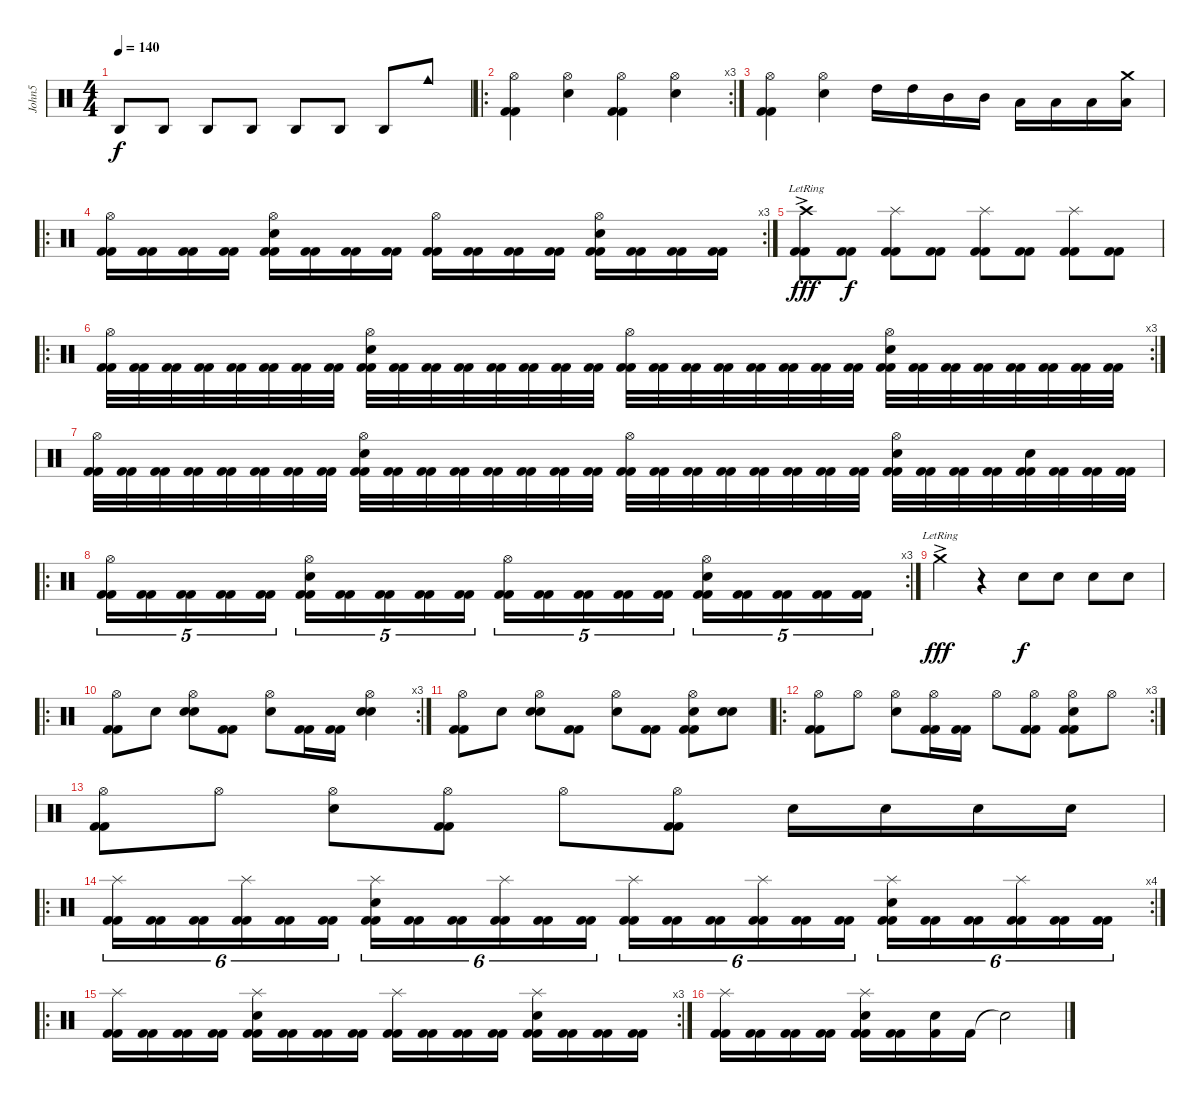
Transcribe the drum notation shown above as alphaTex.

\track ("John5" "John5") {instrument percussion}
\staff {score}
\articulation defaults
\ts (4 4)
\tempo 140
\clef neutral
\ks c "Agogo high (hit)".8{dy f} "Agogo high (hit)".8 "Agogo high (hit)".8 "Agogo high (hit)".8 "Agogo high (hit)".8 "Agogo high (hit)".8 "Agogo high (hit)".8 "Cowbell medium (hit)".8
|
\ro
\rc 3
("Hi-Hat (open)" "Kick (hit) 2" "Kick (hit) 2").4 ("Hi-Hat (open)" "Electric Snare (hit)").4 ("Hi-Hat (open)" "Kick (hit) 2" "Kick (hit) 2").4 ("Hi-Hat (open)" "Electric Snare (hit)").4 |
("Hi-Hat (open)" "Kick (hit) 2" "Kick (hit) 2").4 ("Hi-Hat (open)" "Electric Snare (hit)").4 "High Tom (hit)".16 "High Tom (hit)".16 "Mid Tom (hit)".16 "Mid Tom (hit)".16 "Low Tom (hit)".16 "Low Tom (hit)".16 "Low Tom (hit)".16 ("Crash medium (hit)" "Low Tom (hit)").16 |
\ro
\rc 3
("Hi-Hat (open)" "Kick (hit) 2" "Kick (hit) 2").16 ("Kick (hit) 2" "Kick (hit) 2").16 ("Kick (hit) 2" "Kick (hit) 2").16 ("Kick (hit) 2" "Kick (hit) 2").16 ("Hi-Hat (open)" "Electric Snare (hit)" "Kick (hit) 2" "Kick (hit) 2").16 ("Kick (hit) 2" "Kick (hit) 2").16 ("Kick (hit) 2" "Kick (hit) 2").16 ("Kick (hit) 2" "Kick (hit) 2").16 ("Hi-Hat (open)" "Kick (hit) 2" "Kick (hit) 2").16 ("Kick (hit) 2" "Kick (hit) 2").16 ("Kick (hit) 2" "Kick (hit) 2").16 ("Kick (hit) 2" "Kick (hit) 2").16 ("Hi-Hat (open)" "Electric Snare (hit)" "Kick (hit) 2" "Kick (hit) 2").16 ("Kick (hit) 2" "Kick (hit) 2").16 ("Kick (hit) 2" "Kick (hit) 2").16 ("Kick (hit) 2" "Kick (hit) 2").16 |
("Crash high (hit)"{ac lr} "Kick (hit) 2" "Kick (hit) 2").8{dy fff} ("Kick (hit) 2" "Kick (hit) 2").8{dy f} ("Splash (hit)" "Kick (hit) 2" "Kick (hit) 2").8 ("Kick (hit) 2" "Kick (hit) 2").8 ("Splash (hit)" "Kick (hit) 2" "Kick (hit) 2").8 ("Kick (hit) 2" "Kick (hit) 2").8 ("Splash (hit)" "Kick (hit) 2" "Kick (hit) 2").8 ("Kick (hit) 2" "Kick (hit) 2").8 |
\ro
\rc 3
("Hi-Hat (open)" "Kick (hit) 2" "Kick (hit) 2").32 ("Kick (hit) 2" "Kick (hit) 2").32 ("Kick (hit) 2" "Kick (hit) 2").32 ("Kick (hit) 2" "Kick (hit) 2").32 ("Kick (hit) 2" "Kick (hit) 2").32 ("Kick (hit) 2" "Kick (hit) 2").32 ("Kick (hit) 2" "Kick (hit) 2").32 ("Kick (hit) 2" "Kick (hit) 2").32 ("Hi-Hat (open)" "Electric Snare (hit)" "Kick (hit) 2" "Kick (hit) 2").32 ("Kick (hit) 2" "Kick (hit) 2").32 ("Kick (hit) 2" "Kick (hit) 2").32 ("Kick (hit) 2" "Kick (hit) 2").32 ("Kick (hit) 2" "Kick (hit) 2").32 ("Kick (hit) 2" "Kick (hit) 2").32 ("Kick (hit) 2" "Kick (hit) 2").32 ("Kick (hit) 2" "Kick (hit) 2").32 ("Hi-Hat (open)" "Kick (hit) 2" "Kick (hit) 2").32 ("Kick (hit) 2" "Kick (hit) 2").32 ("Kick (hit) 2" "Kick (hit) 2").32 ("Kick (hit) 2" "Kick (hit) 2").32 ("Kick (hit) 2" "Kick (hit) 2").32 ("Kick (hit) 2" "Kick (hit) 2").32 ("Kick (hit) 2" "Kick (hit) 2").32 ("Kick (hit) 2" "Kick (hit) 2").32 ("Hi-Hat (open)" "Electric Snare (hit)" "Kick (hit) 2" "Kick (hit) 2").32 ("Kick (hit) 2" "Kick (hit) 2").32 ("Kick (hit) 2" "Kick (hit) 2").32 ("Kick (hit) 2" "Kick (hit) 2").32 ("Kick (hit) 2" "Kick (hit) 2").32 ("Kick (hit) 2" "Kick (hit) 2").32 ("Kick (hit) 2" "Kick (hit) 2").32 ("Kick (hit) 2" "Kick (hit) 2").32 |
("Hi-Hat (open)" "Kick (hit) 2" "Kick (hit) 2").32 ("Kick (hit) 2" "Kick (hit) 2").32 ("Kick (hit) 2" "Kick (hit) 2").32 ("Kick (hit) 2" "Kick (hit) 2").32 ("Kick (hit) 2" "Kick (hit) 2").32 ("Kick (hit) 2" "Kick (hit) 2").32 ("Kick (hit) 2" "Kick (hit) 2").32 ("Kick (hit) 2" "Kick (hit) 2").32 ("Hi-Hat (open)" "Electric Snare (hit)" "Kick (hit) 2" "Kick (hit) 2").32 ("Kick (hit) 2" "Kick (hit) 2").32 ("Kick (hit) 2" "Kick (hit) 2").32 ("Kick (hit) 2" "Kick (hit) 2").32 ("Kick (hit) 2" "Kick (hit) 2").32 ("Kick (hit) 2" "Kick (hit) 2").32 ("Kick (hit) 2" "Kick (hit) 2").32 ("Kick (hit) 2" "Kick (hit) 2").32 ("Hi-Hat (open)" "Kick (hit) 2" "Kick (hit) 2").32 ("Kick (hit) 2" "Kick (hit) 2").32 ("Kick (hit) 2" "Kick (hit) 2").32 ("Kick (hit) 2" "Kick (hit) 2").32 ("Kick (hit) 2" "Kick (hit) 2").32 ("Kick (hit) 2" "Kick (hit) 2").32 ("Kick (hit) 2" "Kick (hit) 2").32 ("Kick (hit) 2" "Kick (hit) 2").32 ("Hi-Hat (open)" "Electric Snare (hit)" "Kick (hit) 2" "Kick (hit) 2").32 ("Kick (hit) 2" "Kick (hit) 2").32 ("Kick (hit) 2" "Kick (hit) 2").32 ("Kick (hit) 2" "Kick (hit) 2").32 ("Electric Snare (hit)" "Kick (hit) 2" "Kick (hit) 2").32 ("Kick (hit) 2" "Kick (hit) 2").32 ("Kick (hit) 2" "Kick (hit) 2").32 ("Kick (hit) 2" "Kick (hit) 2").32 |
\ro
\rc 3
("Hi-Hat (open)" "Kick (hit) 2" "Kick (hit) 2").16{tu (5 4)} ("Kick (hit) 2" "Kick (hit) 2").16{tu (5 4)} ("Kick (hit) 2" "Kick (hit) 2").16{tu (5 4)} ("Kick (hit) 2" "Kick (hit) 2").16{tu (5 4)} ("Kick (hit) 2" "Kick (hit) 2").16{tu (5 4)} ("Hi-Hat (open)" "Electric Snare (hit)" "Kick (hit) 2" "Kick (hit) 2").16{tu (5 4)} ("Kick (hit) 2" "Kick (hit) 2").16{tu (5 4)} ("Kick (hit) 2" "Kick (hit) 2").16{tu (5 4)} ("Kick (hit) 2" "Kick (hit) 2").16{tu (5 4)} ("Kick (hit) 2" "Kick (hit) 2").16{tu (5 4)} ("Hi-Hat (open)" "Kick (hit) 2" "Kick (hit) 2").16{tu (5 4)} ("Kick (hit) 2" "Kick (hit) 2").16{tu (5 4)} ("Kick (hit) 2" "Kick (hit) 2").16{tu (5 4)} ("Kick (hit) 2" "Kick (hit) 2").16{tu (5 4)} ("Kick (hit) 2" "Kick (hit) 2").16{tu (5 4)} ("Hi-Hat (open)" "Electric Snare (hit)" "Kick (hit) 2" "Kick (hit) 2").16{tu (5 4)} ("Kick (hit) 2" "Kick (hit) 2").16{tu (5 4)} ("Kick (hit) 2" "Kick (hit) 2").16{tu (5 4)} ("Kick (hit) 2" "Kick (hit) 2").16{tu (5 4)} ("Kick (hit) 2" "Kick (hit) 2").16{tu (5 4)} |
"Crash medium (hit)"{ac lr}.4{dy fff} r.4 "Electric Snare (hit)".8{dy f} "Electric Snare (hit)".8 "Electric Snare (hit)".8 "Electric Snare (hit)".8 |
\ro
\rc 3
("Hi-Hat (open)" "Kick (hit) 2" "Kick (hit) 2").8 "Snare (hit)".8 ("Hi-Hat (open)" "Electric Snare (hit)" "Snare (hit)").8 ("Kick (hit) 2" "Kick (hit) 2").8 ("Hi-Hat (open)" "Snare (hit)").8 ("Kick (hit) 2" "Kick (hit) 2").16 ("Kick (hit) 2" "Kick (hit) 2").16 ("Hi-Hat (open)" "Electric Snare (hit)" "Snare (hit)").4 |
("Hi-Hat (open)" "Kick (hit) 2" "Kick (hit) 2").8 "Snare (hit)".8 ("Hi-Hat (open)" "Electric Snare (hit)" "Snare (hit)").8 ("Kick (hit) 2" "Kick (hit) 2").8 ("Hi-Hat (open)" "Snare (hit)").8 ("Kick (hit) 2" "Kick (hit) 2").8 ("Hi-Hat (open)" "Electric Snare (hit)" "Kick (hit) 2" "Kick (hit) 2").8 ("Electric Snare (hit)" "Snare (hit)").8 |
\ro
\rc 3
("Hi-Hat (open)" "Kick (hit) 2" "Kick (hit) 2").8 "Hi-Hat (open)".8 ("Hi-Hat (open)" "Electric Snare (hit)").8 ("Hi-Hat (open)" "Kick (hit) 2" "Kick (hit) 2").16 ("Kick (hit) 2" "Kick (hit) 2").16 "Hi-Hat (open)".8 ("Hi-Hat (open)" "Kick (hit) 2" "Kick (hit) 2").8 ("Hi-Hat (open)" "Electric Snare (hit)" "Kick (hit) 2" "Kick (hit) 2").8 "Hi-Hat (open)".8 |
("Hi-Hat (open)" "Kick (hit) 2" "Kick (hit) 2").8 "Hi-Hat (open)".8 ("Hi-Hat (open)" "Electric Snare (hit)").8 ("Hi-Hat (open)" "Kick (hit) 2" "Kick (hit) 2").8 "Hi-Hat (open)".8 ("Hi-Hat (open)" "Kick (hit) 2" "Kick (hit) 2").8 "Electric Snare (hit)".16 "Electric Snare (hit)".16 "Electric Snare (hit)".16 "Electric Snare (hit)".16 |
\ro
\rc 4
("Splash (hit)" "Kick (hit) 2" "Kick (hit) 2").16{tu (6 4)} ("Kick (hit) 2" "Kick (hit) 2").16{tu (6 4)} ("Kick (hit) 2" "Kick (hit) 2").16{tu (6 4)} ("Splash (hit)" "Kick (hit) 2" "Kick (hit) 2").16{tu (6 4)} ("Kick (hit) 2" "Kick (hit) 2").16{tu (6 4)} ("Kick (hit) 2" "Kick (hit) 2").16{tu (6 4)} ("Splash (hit)" "Electric Snare (hit)" "Kick (hit) 2" "Kick (hit) 2").16{tu (6 4)} ("Kick (hit) 2" "Kick (hit) 2").16{tu (6 4)} ("Kick (hit) 2" "Kick (hit) 2").16{tu (6 4)} ("Splash (hit)" "Kick (hit) 2" "Kick (hit) 2").16{tu (6 4)} ("Kick (hit) 2" "Kick (hit) 2").16{tu (6 4)} ("Kick (hit) 2" "Kick (hit) 2").16{tu (6 4)} ("Splash (hit)" "Kick (hit) 2" "Kick (hit) 2").16{tu (6 4)} ("Kick (hit) 2" "Kick (hit) 2").16{tu (6 4)} ("Kick (hit) 2" "Kick (hit) 2").16{tu (6 4)} ("Splash (hit)" "Kick (hit) 2" "Kick (hit) 2").16{tu (6 4)} ("Kick (hit) 2" "Kick (hit) 2").16{tu (6 4)} ("Kick (hit) 2" "Kick (hit) 2").16{tu (6 4)} ("Splash (hit)" "Electric Snare (hit)" "Kick (hit) 2" "Kick (hit) 2").16{tu (6 4)} ("Kick (hit) 2" "Kick (hit) 2").16{tu (6 4)} ("Kick (hit) 2" "Kick (hit) 2").16{tu (6 4)} ("Splash (hit)" "Kick (hit) 2" "Kick (hit) 2").16{tu (6 4)} ("Kick (hit) 2" "Kick (hit) 2").16{tu (6 4)} ("Kick (hit) 2" "Kick (hit) 2").16{tu (6 4)} |
\ro
\rc 3
("Splash (hit)" "Kick (hit) 2" "Kick (hit) 2").16 ("Kick (hit) 2" "Kick (hit) 2").16 ("Kick (hit) 2" "Kick (hit) 2").16 ("Kick (hit) 2" "Kick (hit) 2").16 ("Splash (hit)" "Electric Snare (hit)" "Kick (hit) 2" "Kick (hit) 2").16 ("Kick (hit) 2" "Kick (hit) 2").16 ("Kick (hit) 2" "Kick (hit) 2").16 ("Kick (hit) 2" "Kick (hit) 2").16 ("Splash (hit)" "Kick (hit) 2" "Kick (hit) 2").16 ("Kick (hit) 2" "Kick (hit) 2").16 ("Kick (hit) 2" "Kick (hit) 2").16 ("Kick (hit) 2" "Kick (hit) 2").16 ("Splash (hit)" "Electric Snare (hit)" "Kick (hit) 2" "Kick (hit) 2").16 ("Kick (hit) 2" "Kick (hit) 2").16 ("Kick (hit) 2" "Kick (hit) 2").16 ("Kick (hit) 2" "Kick (hit) 2").16 |
("Splash (hit)" "Kick (hit) 2" "Kick (hit) 2").16 ("Kick (hit) 2" "Kick (hit) 2").16 ("Kick (hit) 2" "Kick (hit) 2").16 ("Kick (hit) 2" "Kick (hit) 2").16 ("Splash (hit)" "Electric Snare (hit)" "Kick (hit) 2" "Kick (hit) 2").16 ("Kick (hit) 2" "Kick (hit) 2").16 ("Electric Snare (hit)" "Kick (hit) 2").16 "Kick (hit) 2".16 "Electric Snare (hit)"{t}.2
